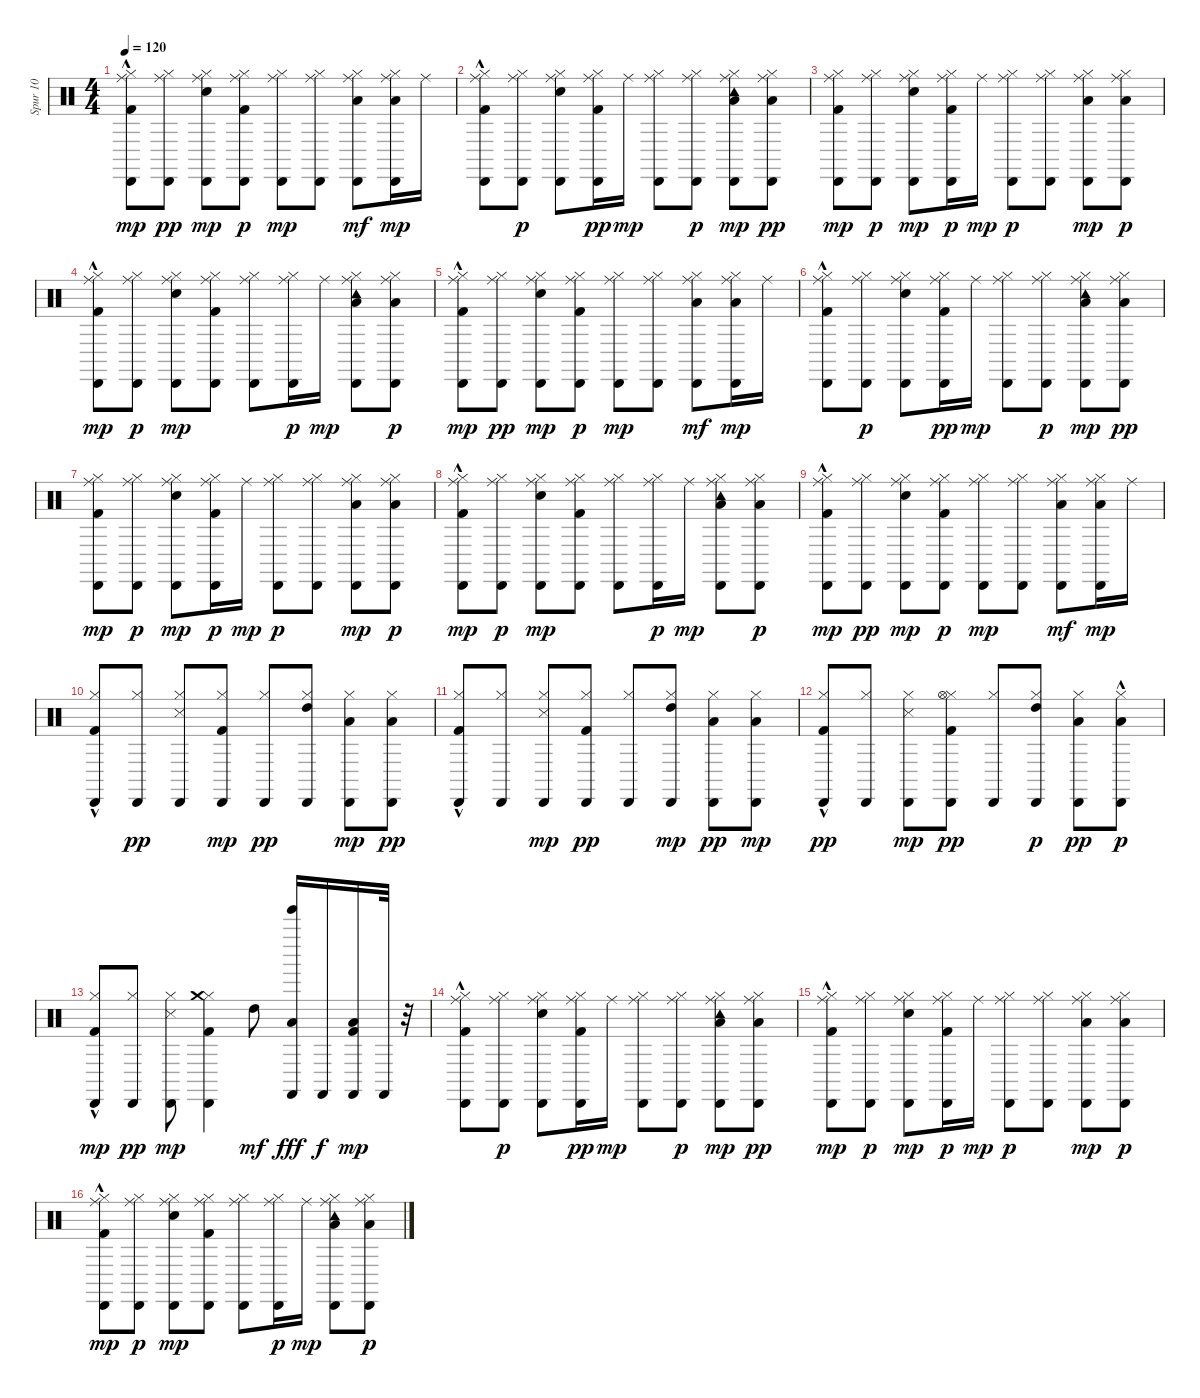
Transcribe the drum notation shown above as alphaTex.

\track ("Spur 10" "Spur 10") {instrument percussion}
\staff {score}
\articulation defaults
\ts (4 4)
\tempo 120
\clef neutral
\ks c
("Kick (hit) 2"{hac} "Hi-Hat (closed)" "Cabasa (hit)" "Ride (middle)").8{dy mp} ("Hi-Hat (closed)" "Cabasa (hit)" "Ride (middle)").8{dy pp} ("Snare (hit) 2" "Hi-Hat (closed)" "Cabasa (hit)" "Ride (middle)").8{dy mp} ("Kick (hit) 2" "Hi-Hat (closed)" "Cabasa (hit)" "Ride (middle)").8{dy p} ("Hi-Hat (closed)" "Cabasa (hit)" "Ride (middle)").8{dy mp} ("Hi-Hat (closed)" "Cabasa (hit)" "Ride (middle)").8 ("Low Floor Tom (hit)" "Hi-Hat (closed)" "Cabasa (hit)" "Ride (middle)").8{dy mf} ("Low Floor Tom (hit)" "Hi-Hat (closed)" "Cabasa (hit)" "Ride (middle)").16{dy mp} "Ride (middle)".16 |
("Kick (hit) 2"{hac} "Hi-Hat (closed)" "Cabasa (hit)" "Ride (middle)").8 ("Hi-Hat (closed)" "Cabasa (hit)" "Ride (middle)").8{dy p} ("Snare (hit) 2" "Hi-Hat (closed)" "Cabasa (hit)" "Ride (middle)").8 ("Kick (hit) 2" "Hi-Hat (closed)" "Cabasa (hit)" "Ride (middle)").16{dy pp} "Ride (middle)".16{dy mp} ("Hi-Hat (closed)" "Cabasa (hit)" "Ride (middle)").8 ("Hi-Hat (closed)" "Cabasa (hit)" "Ride (middle)").8{dy p} ("Low Tom (hit)" "Hi-Hat (closed)" "Cabasa (hit)" "Tambourine (hit)" "Ride (middle)").8{dy mp} ("Low Tom (hit)" "Hi-Hat (closed)" "Cabasa (hit)" "Ride (middle)").8{dy pp} |
("Kick (hit) 2" "Hi-Hat (closed)" "Cabasa (hit)" "Ride (middle)").8{dy mp} ("Hi-Hat (closed)" "Cabasa (hit)" "Ride (middle)").8{dy p} ("Snare (hit) 2" "Hi-Hat (closed)" "Cabasa (hit)" "Ride (middle)").8{dy mp} ("Kick (hit) 2" "Hi-Hat (closed)" "Cabasa (hit)" "Ride (middle)").16{dy p} "Ride (middle)".16{dy mp} ("Hi-Hat (closed)" "Cabasa (hit)" "Ride (middle)").8{dy p} ("Hi-Hat (closed)" "Cabasa (hit)" "Ride (middle)").8 ("Low Floor Tom (hit)" "Hi-Hat (closed)" "Cabasa (hit)" "Ride (middle)").8{dy mp} ("Low Floor Tom (hit)" "Hi-Hat (closed)" "Cabasa (hit)" "Ride (middle)").8{dy p} |
("Kick (hit) 2"{hac} "Hi-Hat (closed)" "Cabasa (hit)" "Ride (middle)").8{dy mp} ("Hi-Hat (closed)" "Cabasa (hit)" "Ride (middle)").8{dy p} ("Snare (hit) 2" "Hi-Hat (closed)" "Cabasa (hit)" "Ride (middle)").8{dy mp} ("Kick (hit) 2" "Hi-Hat (closed)" "Cabasa (hit)" "Ride (middle)").8 ("Hi-Hat (closed)" "Cabasa (hit)" "Ride (middle)").8 ("Hi-Hat (closed)" "Cabasa (hit)" "Ride (middle)").16{dy p} "Ride (middle)".16{dy mp} ("Low Tom (hit)" "Hi-Hat (closed)" "Cabasa (hit)" "Tambourine (hit)" "Ride (middle)").8 ("Low Tom (hit)" "Hi-Hat (closed)" "Cabasa (hit)" "Ride (middle)").8{dy p} |
("Kick (hit) 2"{hac} "Hi-Hat (closed)" "Cabasa (hit)" "Ride (middle)").8{dy mp} ("Hi-Hat (closed)" "Cabasa (hit)" "Ride (middle)").8{dy pp} ("Snare (hit) 2" "Hi-Hat (closed)" "Cabasa (hit)" "Ride (middle)").8{dy mp} ("Kick (hit) 2" "Hi-Hat (closed)" "Cabasa (hit)" "Ride (middle)").8{dy p} ("Hi-Hat (closed)" "Cabasa (hit)" "Ride (middle)").8{dy mp} ("Hi-Hat (closed)" "Cabasa (hit)" "Ride (middle)").8 ("Low Floor Tom (hit)" "Hi-Hat (closed)" "Cabasa (hit)" "Ride (middle)").8{dy mf} ("Low Floor Tom (hit)" "Hi-Hat (closed)" "Cabasa (hit)" "Ride (middle)").16{dy mp} "Ride (middle)".16 |
("Kick (hit) 2"{hac} "Hi-Hat (closed)" "Cabasa (hit)" "Ride (middle)").8 ("Hi-Hat (closed)" "Cabasa (hit)" "Ride (middle)").8{dy p} ("Snare (hit) 2" "Hi-Hat (closed)" "Cabasa (hit)" "Ride (middle)").8 ("Kick (hit) 2" "Hi-Hat (closed)" "Cabasa (hit)" "Ride (middle)").16{dy pp} "Ride (middle)".16{dy mp} ("Hi-Hat (closed)" "Cabasa (hit)" "Ride (middle)").8 ("Hi-Hat (closed)" "Cabasa (hit)" "Ride (middle)").8{dy p} ("Low Tom (hit)" "Hi-Hat (closed)" "Cabasa (hit)" "Tambourine (hit)" "Ride (middle)").8{dy mp} ("Low Tom (hit)" "Hi-Hat (closed)" "Cabasa (hit)" "Ride (middle)").8{dy pp} |
("Kick (hit) 2" "Hi-Hat (closed)" "Cabasa (hit)" "Ride (middle)").8{dy mp} ("Hi-Hat (closed)" "Cabasa (hit)" "Ride (middle)").8{dy p} ("Snare (hit) 2" "Hi-Hat (closed)" "Cabasa (hit)" "Ride (middle)").8{dy mp} ("Kick (hit) 2" "Hi-Hat (closed)" "Cabasa (hit)" "Ride (middle)").16{dy p} "Ride (middle)".16{dy mp} ("Hi-Hat (closed)" "Cabasa (hit)" "Ride (middle)").8{dy p} ("Hi-Hat (closed)" "Cabasa (hit)" "Ride (middle)").8 ("Low Floor Tom (hit)" "Hi-Hat (closed)" "Cabasa (hit)" "Ride (middle)").8{dy mp} ("Low Floor Tom (hit)" "Hi-Hat (closed)" "Cabasa (hit)" "Ride (middle)").8{dy p} |
("Kick (hit) 2"{hac} "Hi-Hat (closed)" "Cabasa (hit)" "Ride (middle)").8{dy mp} ("Hi-Hat (closed)" "Cabasa (hit)" "Ride (middle)").8{dy p} ("Snare (hit) 2" "Hi-Hat (closed)" "Cabasa (hit)" "Ride (middle)").8{dy mp} ("Kick (hit) 2" "Hi-Hat (closed)" "Cabasa (hit)" "Ride (middle)").8 ("Hi-Hat (closed)" "Cabasa (hit)" "Ride (middle)").8 ("Hi-Hat (closed)" "Cabasa (hit)" "Ride (middle)").16{dy p} "Ride (middle)".16{dy mp} ("Low Tom (hit)" "Hi-Hat (closed)" "Cabasa (hit)" "Tambourine (hit)" "Ride (middle)").8 ("Low Tom (hit)" "Hi-Hat (closed)" "Cabasa (hit)" "Ride (middle)").8{dy p} |
("Kick (hit) 2"{hac} "Hi-Hat (closed)" "Cabasa (hit)" "Ride (middle)").8{dy mp} ("Hi-Hat (closed)" "Cabasa (hit)" "Ride (middle)").8{dy pp} ("Snare (hit) 2" "Hi-Hat (closed)" "Cabasa (hit)" "Ride (middle)").8{dy mp} ("Kick (hit) 2" "Hi-Hat (closed)" "Cabasa (hit)" "Ride (middle)").8{dy p} ("Hi-Hat (closed)" "Cabasa (hit)" "Ride (middle)").8{dy mp} ("Hi-Hat (closed)" "Cabasa (hit)" "Ride (middle)").8 ("Low Floor Tom (hit)" "Hi-Hat (closed)" "Cabasa (hit)" "Ride (middle)").8{dy mf} ("Low Floor Tom (hit)" "Hi-Hat (closed)" "Cabasa (hit)" "Ride (middle)").16{dy mp} "Ride (middle)".16 |
("Kick (hit) 2"{hac} "Hi-Hat (closed)" "Cabasa (hit)").8 ("Hi-Hat (closed)" "Cabasa (hit)").8{dy pp} ("Snare (side stick) 3" "Hi-Hat (closed)" "Cabasa (hit)").8 ("Kick (hit) 2" "Hi-Hat (closed)" "Cabasa (hit)").8{dy mp} ("Hi-Hat (closed)" "Cabasa (hit)").8{dy pp} ("High Tom (hit)" "Hi-Hat (closed)" "Cabasa (hit)").8 ("Low Tom (hit)" "Hi-Hat (closed)" "Cabasa (hit)").8{dy mp} ("Low Tom (hit)" "Hi-Hat (closed)" "Cabasa (hit)").8{dy pp} |
("Kick (hit) 2"{hac} "Hi-Hat (closed)" "Cabasa (hit)").8 ("Hi-Hat (closed)" "Cabasa (hit)").8 ("Snare (side stick) 3" "Hi-Hat (closed)" "Cabasa (hit)").8{dy mp} ("Kick (hit) 2" "Hi-Hat (closed)" "Cabasa (hit)").8{dy pp} ("Hi-Hat (closed)" "Cabasa (hit)").8 ("High Tom (hit)" "Hi-Hat (closed)" "Cabasa (hit)").8{dy mp} ("Low Floor Tom (hit)" "Hi-Hat (closed)" "Cabasa (hit)").8{dy pp} ("Low Floor Tom (hit)" "Hi-Hat (closed)" "Cabasa (hit)").8{dy mp} |
("Kick (hit) 2"{hac} "Hi-Hat (closed)" "Cabasa (hit)").8{dy pp} ("Hi-Hat (closed)" "Cabasa (hit)").8 ("Snare (side stick) 3" "Hi-Hat (closed)" "Cabasa (hit)").8{dy mp} ("Kick (hit) 2" "Hi-Hat (closed)" "Hi-Hat (open)" "Cabasa (hit)").8{dy pp} ("Hi-Hat (closed)" "Cabasa (hit)").8 ("High Tom (hit)" "Hi-Hat (closed)" "Cabasa (hit)").8{dy p} ("Low Tom (hit)" "Hi-Hat (closed)" "Cabasa (hit)").8{dy pp} ("Low Tom (hit)"{hac} "Hi-Hat (closed)" "Cabasa (hit)").8{dy p} |
("Kick (hit) 2"{hac} "Hi-Hat (closed)" "Cabasa (hit)").8{dy mp} ("Hi-Hat (closed)" "Cabasa (hit)").8{dy pp} ("Snare (side stick) 3" "Hi-Hat (closed)" "Cabasa (hit)").8{dy mp} ("Kick (hit) 2" "Hi-Hat (closed)" "Cabasa (hit)" "Crash medium (hit)").4 "High Tom (hit)".8{dy mf} ("Low Tom (hit)" "Tinkle Bell (hit)" "Castanets (hit)").16{dy fff} "Castanets (hit)".16{dy f} ("Low Tom (hit)" "Kick (hit) 2" "Castanets (hit)").16{dy mp} "Castanets (hit)".32 r.32 |
("Kick (hit) 2"{hac} "Hi-Hat (closed)" "Cabasa (hit)" "Ride (middle)").8 ("Hi-Hat (closed)" "Cabasa (hit)" "Ride (middle)").8{dy p} ("Snare (hit) 2" "Hi-Hat (closed)" "Cabasa (hit)" "Ride (middle)").8 ("Kick (hit) 2" "Hi-Hat (closed)" "Cabasa (hit)" "Ride (middle)").16{dy pp} "Ride (middle)".16{dy mp} ("Hi-Hat (closed)" "Cabasa (hit)" "Ride (middle)").8 ("Hi-Hat (closed)" "Cabasa (hit)" "Ride (middle)").8{dy p} ("Low Tom (hit)" "Hi-Hat (closed)" "Cabasa (hit)" "Tambourine (hit)" "Ride (middle)").8{dy mp} ("Low Tom (hit)" "Hi-Hat (closed)" "Cabasa (hit)" "Ride (middle)").8{dy pp} |
("Kick (hit) 2"{hac} "Hi-Hat (closed)" "Cabasa (hit)" "Ride (middle)").8{dy mp} ("Hi-Hat (closed)" "Cabasa (hit)" "Ride (middle)").8{dy p} ("Snare (hit) 2" "Hi-Hat (closed)" "Cabasa (hit)" "Ride (middle)").8{dy mp} ("Kick (hit) 2" "Hi-Hat (closed)" "Cabasa (hit)" "Ride (middle)").16{dy p} "Ride (middle)".16{dy mp} ("Hi-Hat (closed)" "Cabasa (hit)" "Ride (middle)").8{dy p} ("Hi-Hat (closed)" "Cabasa (hit)" "Ride (middle)").8 ("Low Floor Tom (hit)" "Hi-Hat (closed)" "Cabasa (hit)" "Ride (middle)").8{dy mp} ("Low Floor Tom (hit)" "Hi-Hat (closed)" "Cabasa (hit)" "Ride (middle)").8{dy p} |
("Kick (hit) 2"{hac} "Hi-Hat (closed)" "Cabasa (hit)" "Ride (middle)").8{dy mp} ("Hi-Hat (closed)" "Cabasa (hit)" "Ride (middle)").8{dy p} ("Snare (hit) 2" "Hi-Hat (closed)" "Cabasa (hit)" "Ride (middle)").8{dy mp} ("Kick (hit) 2" "Hi-Hat (closed)" "Cabasa (hit)" "Ride (middle)").8 ("Hi-Hat (closed)" "Cabasa (hit)" "Ride (middle)").8 ("Hi-Hat (closed)" "Cabasa (hit)" "Ride (middle)").16{dy p} "Ride (middle)".16{dy mp} ("Low Tom (hit)" "Hi-Hat (closed)" "Cabasa (hit)" "Tambourine (hit)" "Ride (middle)").8 ("Low Tom (hit)" "Hi-Hat (closed)" "Cabasa (hit)" "Ride (middle)").8{dy p}
